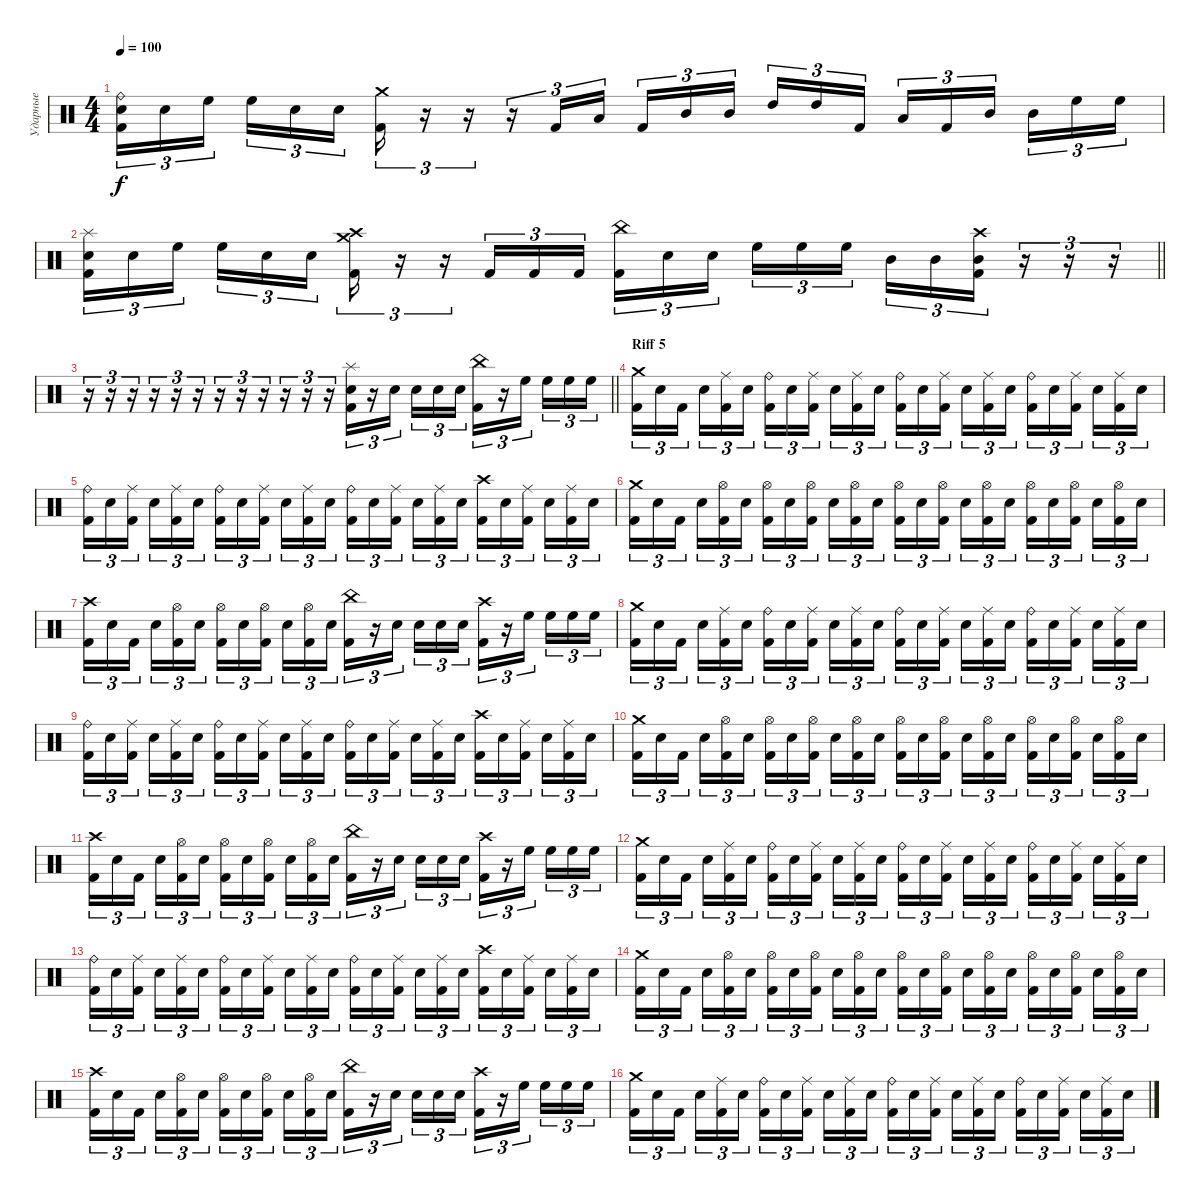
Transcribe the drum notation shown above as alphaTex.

\track ("Ударные" "Ударные") {instrument percussion}
\staff {score}
\articulation defaults
\ts (4 4)
\tempo 100
\clef neutral
\ks c
("Ride (bell)" "Electric Snare (hit)" "Kick (hit) 2").16{tu (3 2) dy f} "Electric Snare (hit)".16{tu (3 2)} "High Floor Tom (hit)".16{tu (3 2) beam splitsecondary} "High Floor Tom (hit)".16{tu (3 2)} "Electric Snare (hit)".16{tu (3 2)} "Electric Snare (hit)".16{tu (3 2)} ("Crash medium (hit)" "Kick (hit) 2").16{tu (3 2)} r.16{tu (3 2)} r.16{tu (3 2)} r.16{tu (3 2)} "Kick (hit) 2".16{tu (3 2)} "Low Tom (hit)".16{tu (3 2)} "Kick (hit) 2".16{tu (3 2)} "Mid Tom (hit)".16{tu (3 2)} "Mid Tom (hit)".16{tu (3 2) beam splitsecondary} "High Tom (hit)".16{tu (3 2)} "High Tom (hit)".16{tu (3 2)} "Kick (hit) 2".16{tu (3 2)} "Low Tom (hit)".16{tu (3 2)} "Kick (hit) 2".16{tu (3 2)} "Mid Tom (hit)".16{tu (3 2) beam splitsecondary} "Mid Tom (hit)".16{tu (3 2)} "High Floor Tom (hit)".16{tu (3 2)} "High Floor Tom (hit)".16{tu (3 2)} |
\barLineRight lightlight
("Splash (hit)" "Electric Snare (hit)" "Kick (hit) 2").16{tu (3 2)} "Electric Snare (hit)".16{tu (3 2)} "High Floor Tom (hit)".16{tu (3 2) beam splitsecondary} "High Floor Tom (hit)".16{tu (3 2)} "Electric Snare (hit)".16{tu (3 2)} "Electric Snare (hit)".16{tu (3 2)} ("Crash medium (hit)" "Crash high (hit)" "Kick (hit) 2").16{tu (3 2)} r.16{tu (3 2)} r.16{tu (3 2)} "Kick (hit) 2".16{tu (3 2)} "Kick (hit) 2".16{tu (3 2)} "Kick (hit) 2".16{tu (3 2)} ("China (hit)" "Kick (hit) 2").16{tu (3 2)} "Electric Snare (hit)".16{tu (3 2)} "Electric Snare (hit)".16{tu (3 2) beam splitsecondary} "High Floor Tom (hit)".16{tu (3 2)} "High Floor Tom (hit)".16{tu (3 2)} "High Floor Tom (hit)".16{tu (3 2)} "Mid Tom (hit)".16{tu (3 2)} "Mid Tom (hit)".16{tu (3 2)} ("Crash high (hit)" "Mid Tom (hit)" "Kick (hit) 2").16{tu (3 2)} r.16{tu (3 2)} r.16{tu (3 2)} r.16{tu (3 2)} |
\barLineRight lightlight
r.16{tu (3 2)} r.16{tu (3 2)} r.16{tu (3 2)} r.16{tu (3 2)} r.16{tu (3 2)} r.16{tu (3 2)} r.16{tu (3 2)} r.16{tu (3 2)} r.16{tu (3 2)} r.16{tu (3 2)} r.16{tu (3 2)} r.16{tu (3 2)} ("Splash (hit)" "Electric Snare (hit)" "Kick (hit) 2").16{tu (3 2)} r.16{tu (3 2)} "Electric Snare (hit)".16{tu (3 2) beam splitsecondary} "Electric Snare (hit)".16{tu (3 2)} "Electric Snare (hit)".16{tu (3 2)} "Electric Snare (hit)".16{tu (3 2)} ("China (hit)" "Kick (hit) 2").16{tu (3 2)} r.16{tu (3 2)} "High Floor Tom (hit)".16{tu (3 2) beam splitsecondary} "High Floor Tom (hit)".16{tu (3 2)} "High Floor Tom (hit)".16{tu (3 2)} "High Floor Tom (hit)".16{tu (3 2)} |
\section ("" "Riff 5")
("Crash medium (hit)" "Kick (hit) 2").16{tu (3 2)} "Electric Snare (hit)".16{tu (3 2)} "Kick (hit) 2".16{tu (3 2) beam splitsecondary} "Electric Snare (hit)".16{tu (3 2)} ("Ride (middle)" "Kick (hit) 2").16{tu (3 2)} "Electric Snare (hit)".16{tu (3 2)} ("Ride (bell)" "Kick (hit) 2").16{tu (3 2)} "Electric Snare (hit)".16{tu (3 2)} ("Ride (middle)" "Kick (hit) 2").16{tu (3 2) beam splitsecondary} "Electric Snare (hit)".16{tu (3 2)} ("Ride (middle)" "Kick (hit) 2").16{tu (3 2)} "Electric Snare (hit)".16{tu (3 2)} ("Ride (bell)" "Kick (hit) 2").16{tu (3 2)} "Electric Snare (hit)".16{tu (3 2)} ("Ride (middle)" "Kick (hit) 2").16{tu (3 2) beam splitsecondary} "Electric Snare (hit)".16{tu (3 2)} ("Ride (middle)" "Kick (hit) 2").16{tu (3 2)} "Electric Snare (hit)".16{tu (3 2)} ("Ride (bell)" "Kick (hit) 2").16{tu (3 2)} "Electric Snare (hit)".16{tu (3 2)} ("Ride (middle)" "Kick (hit) 2").16{tu (3 2) beam splitsecondary} "Electric Snare (hit)".16{tu (3 2)} ("Ride (middle)" "Kick (hit) 2").16{tu (3 2)} "Electric Snare (hit)".16{tu (3 2)} |
("Ride (bell)" "Kick (hit) 2").16{tu (3 2)} "Electric Snare (hit)".16{tu (3 2)} ("Ride (middle)" "Kick (hit) 2").16{tu (3 2) beam splitsecondary} "Electric Snare (hit)".16{tu (3 2)} ("Ride (middle)" "Kick (hit) 2").16{tu (3 2)} "Electric Snare (hit)".16{tu (3 2)} ("Ride (bell)" "Kick (hit) 2").16{tu (3 2)} "Electric Snare (hit)".16{tu (3 2)} ("Ride (middle)" "Kick (hit) 2").16{tu (3 2) beam splitsecondary} "Electric Snare (hit)".16{tu (3 2)} ("Ride (middle)" "Kick (hit) 2").16{tu (3 2)} "Electric Snare (hit)".16{tu (3 2)} ("Ride (bell)" "Kick (hit) 2").16{tu (3 2)} "Electric Snare (hit)".16{tu (3 2)} ("Ride (middle)" "Kick (hit) 2").16{tu (3 2) beam splitsecondary} "Electric Snare (hit)".16{tu (3 2)} ("Ride (middle)" "Kick (hit) 2").16{tu (3 2)} "Electric Snare (hit)".16{tu (3 2)} ("Crash high (hit)" "Kick (hit) 2").16{tu (3 2)} "Electric Snare (hit)".16{tu (3 2)} ("Ride (middle)" "Kick (hit) 2").16{tu (3 2) beam splitsecondary} "Electric Snare (hit)".16{tu (3 2)} ("Ride (middle)" "Kick (hit) 2").16{tu (3 2)} "Electric Snare (hit)".16{tu (3 2)} |
("Crash medium (hit)" "Kick (hit) 2").16{tu (3 2)} "Electric Snare (hit)".16{tu (3 2)} "Kick (hit) 2".16{tu (3 2) beam splitsecondary} "Electric Snare (hit)".16{tu (3 2)} ("Hi-Hat (open)" "Kick (hit) 2").16{tu (3 2)} "Electric Snare (hit)".16{tu (3 2)} ("Hi-Hat (open)" "Kick (hit) 2").16{tu (3 2)} "Electric Snare (hit)".16{tu (3 2)} ("Hi-Hat (open)" "Kick (hit) 2").16{tu (3 2) beam splitsecondary} "Electric Snare (hit)".16{tu (3 2)} ("Hi-Hat (open)" "Kick (hit) 2").16{tu (3 2)} "Electric Snare (hit)".16{tu (3 2)} ("Hi-Hat (open)" "Kick (hit) 2").16{tu (3 2)} "Electric Snare (hit)".16{tu (3 2)} ("Hi-Hat (open)" "Kick (hit) 2").16{tu (3 2) beam splitsecondary} "Electric Snare (hit)".16{tu (3 2)} ("Hi-Hat (open)" "Kick (hit) 2").16{tu (3 2)} "Electric Snare (hit)".16{tu (3 2)} ("Hi-Hat (open)" "Kick (hit) 2").16{tu (3 2)} "Electric Snare (hit)".16{tu (3 2)} ("Hi-Hat (open)" "Kick (hit) 2").16{tu (3 2) beam splitsecondary} "Electric Snare (hit)".16{tu (3 2)} ("Hi-Hat (open)" "Kick (hit) 2").16{tu (3 2)} "Electric Snare (hit)".16{tu (3 2)} |
("Crash high (hit)" "Kick (hit) 2").16{tu (3 2)} "Electric Snare (hit)".16{tu (3 2)} "Kick (hit) 2".16{tu (3 2) beam splitsecondary} "Electric Snare (hit)".16{tu (3 2)} ("Hi-Hat (open)" "Kick (hit) 2").16{tu (3 2)} "Electric Snare (hit)".16{tu (3 2)} ("Hi-Hat (open)" "Kick (hit) 2").16{tu (3 2)} "Electric Snare (hit)".16{tu (3 2)} ("Hi-Hat (open)" "Kick (hit) 2").16{tu (3 2) beam splitsecondary} "Electric Snare (hit)".16{tu (3 2)} ("Hi-Hat (open)" "Kick (hit) 2").16{tu (3 2)} "Electric Snare (hit)".16{tu (3 2)} ("China (hit)" "Kick (hit) 2").16{tu (3 2)} r.16{tu (3 2)} "Electric Snare (hit)".16{tu (3 2) beam splitsecondary} "Electric Snare (hit)".16{tu (3 2)} "Electric Snare (hit)".16{tu (3 2)} "Electric Snare (hit)".16{tu (3 2)} ("Crash high (hit)" "Kick (hit) 2").16{tu (3 2)} r.16{tu (3 2)} "High Floor Tom (hit)".16{tu (3 2) beam splitsecondary} "High Floor Tom (hit)".16{tu (3 2)} "High Floor Tom (hit)".16{tu (3 2)} "High Floor Tom (hit)".16{tu (3 2)} |
("Crash medium (hit)" "Kick (hit) 2").16{tu (3 2)} "Electric Snare (hit)".16{tu (3 2)} "Kick (hit) 2".16{tu (3 2) beam splitsecondary} "Electric Snare (hit)".16{tu (3 2)} ("Ride (middle)" "Kick (hit) 2").16{tu (3 2)} "Electric Snare (hit)".16{tu (3 2)} ("Ride (bell)" "Kick (hit) 2").16{tu (3 2)} "Electric Snare (hit)".16{tu (3 2)} ("Ride (middle)" "Kick (hit) 2").16{tu (3 2) beam splitsecondary} "Electric Snare (hit)".16{tu (3 2)} ("Ride (middle)" "Kick (hit) 2").16{tu (3 2)} "Electric Snare (hit)".16{tu (3 2)} ("Ride (bell)" "Kick (hit) 2").16{tu (3 2)} "Electric Snare (hit)".16{tu (3 2)} ("Ride (middle)" "Kick (hit) 2").16{tu (3 2) beam splitsecondary} "Electric Snare (hit)".16{tu (3 2)} ("Ride (middle)" "Kick (hit) 2").16{tu (3 2)} "Electric Snare (hit)".16{tu (3 2)} ("Ride (bell)" "Kick (hit) 2").16{tu (3 2)} "Electric Snare (hit)".16{tu (3 2)} ("Ride (middle)" "Kick (hit) 2").16{tu (3 2) beam splitsecondary} "Electric Snare (hit)".16{tu (3 2)} ("Ride (middle)" "Kick (hit) 2").16{tu (3 2)} "Electric Snare (hit)".16{tu (3 2)} |
("Ride (bell)" "Kick (hit) 2").16{tu (3 2)} "Electric Snare (hit)".16{tu (3 2)} ("Ride (middle)" "Kick (hit) 2").16{tu (3 2) beam splitsecondary} "Electric Snare (hit)".16{tu (3 2)} ("Ride (middle)" "Kick (hit) 2").16{tu (3 2)} "Electric Snare (hit)".16{tu (3 2)} ("Ride (bell)" "Kick (hit) 2").16{tu (3 2)} "Electric Snare (hit)".16{tu (3 2)} ("Ride (middle)" "Kick (hit) 2").16{tu (3 2) beam splitsecondary} "Electric Snare (hit)".16{tu (3 2)} ("Ride (middle)" "Kick (hit) 2").16{tu (3 2)} "Electric Snare (hit)".16{tu (3 2)} ("Ride (bell)" "Kick (hit) 2").16{tu (3 2)} "Electric Snare (hit)".16{tu (3 2)} ("Ride (middle)" "Kick (hit) 2").16{tu (3 2) beam splitsecondary} "Electric Snare (hit)".16{tu (3 2)} ("Ride (middle)" "Kick (hit) 2").16{tu (3 2)} "Electric Snare (hit)".16{tu (3 2)} ("Crash high (hit)" "Kick (hit) 2").16{tu (3 2)} "Electric Snare (hit)".16{tu (3 2)} ("Ride (middle)" "Kick (hit) 2").16{tu (3 2) beam splitsecondary} "Electric Snare (hit)".16{tu (3 2)} ("Ride (middle)" "Kick (hit) 2").16{tu (3 2)} "Electric Snare (hit)".16{tu (3 2)} |
("Crash medium (hit)" "Kick (hit) 2").16{tu (3 2)} "Electric Snare (hit)".16{tu (3 2)} "Kick (hit) 2".16{tu (3 2) beam splitsecondary} "Electric Snare (hit)".16{tu (3 2)} ("Hi-Hat (open)" "Kick (hit) 2").16{tu (3 2)} "Electric Snare (hit)".16{tu (3 2)} ("Hi-Hat (open)" "Kick (hit) 2").16{tu (3 2)} "Electric Snare (hit)".16{tu (3 2)} ("Hi-Hat (open)" "Kick (hit) 2").16{tu (3 2) beam splitsecondary} "Electric Snare (hit)".16{tu (3 2)} ("Hi-Hat (open)" "Kick (hit) 2").16{tu (3 2)} "Electric Snare (hit)".16{tu (3 2)} ("Hi-Hat (open)" "Kick (hit) 2").16{tu (3 2)} "Electric Snare (hit)".16{tu (3 2)} ("Hi-Hat (open)" "Kick (hit) 2").16{tu (3 2) beam splitsecondary} "Electric Snare (hit)".16{tu (3 2)} ("Hi-Hat (open)" "Kick (hit) 2").16{tu (3 2)} "Electric Snare (hit)".16{tu (3 2)} ("Hi-Hat (open)" "Kick (hit) 2").16{tu (3 2)} "Electric Snare (hit)".16{tu (3 2)} ("Hi-Hat (open)" "Kick (hit) 2").16{tu (3 2) beam splitsecondary} "Electric Snare (hit)".16{tu (3 2)} ("Hi-Hat (open)" "Kick (hit) 2").16{tu (3 2)} "Electric Snare (hit)".16{tu (3 2)} |
("Crash high (hit)" "Kick (hit) 2").16{tu (3 2)} "Electric Snare (hit)".16{tu (3 2)} "Kick (hit) 2".16{tu (3 2) beam splitsecondary} "Electric Snare (hit)".16{tu (3 2)} ("Hi-Hat (open)" "Kick (hit) 2").16{tu (3 2)} "Electric Snare (hit)".16{tu (3 2)} ("Hi-Hat (open)" "Kick (hit) 2").16{tu (3 2)} "Electric Snare (hit)".16{tu (3 2)} ("Hi-Hat (open)" "Kick (hit) 2").16{tu (3 2) beam splitsecondary} "Electric Snare (hit)".16{tu (3 2)} ("Hi-Hat (open)" "Kick (hit) 2").16{tu (3 2)} "Electric Snare (hit)".16{tu (3 2)} ("China (hit)" "Kick (hit) 2").16{tu (3 2)} r.16{tu (3 2)} "Electric Snare (hit)".16{tu (3 2) beam splitsecondary} "Electric Snare (hit)".16{tu (3 2)} "Electric Snare (hit)".16{tu (3 2)} "Electric Snare (hit)".16{tu (3 2)} ("Crash high (hit)" "Kick (hit) 2").16{tu (3 2)} r.16{tu (3 2)} "High Floor Tom (hit)".16{tu (3 2) beam splitsecondary} "High Floor Tom (hit)".16{tu (3 2)} "High Floor Tom (hit)".16{tu (3 2)} "High Floor Tom (hit)".16{tu (3 2)} |
("Crash medium (hit)" "Kick (hit) 2").16{tu (3 2)} "Electric Snare (hit)".16{tu (3 2)} "Kick (hit) 2".16{tu (3 2) beam splitsecondary} "Electric Snare (hit)".16{tu (3 2)} ("Ride (middle)" "Kick (hit) 2").16{tu (3 2)} "Electric Snare (hit)".16{tu (3 2)} ("Ride (bell)" "Kick (hit) 2").16{tu (3 2)} "Electric Snare (hit)".16{tu (3 2)} ("Ride (middle)" "Kick (hit) 2").16{tu (3 2) beam splitsecondary} "Electric Snare (hit)".16{tu (3 2)} ("Ride (middle)" "Kick (hit) 2").16{tu (3 2)} "Electric Snare (hit)".16{tu (3 2)} ("Ride (bell)" "Kick (hit) 2").16{tu (3 2)} "Electric Snare (hit)".16{tu (3 2)} ("Ride (middle)" "Kick (hit) 2").16{tu (3 2) beam splitsecondary} "Electric Snare (hit)".16{tu (3 2)} ("Ride (middle)" "Kick (hit) 2").16{tu (3 2)} "Electric Snare (hit)".16{tu (3 2)} ("Ride (bell)" "Kick (hit) 2").16{tu (3 2)} "Electric Snare (hit)".16{tu (3 2)} ("Ride (middle)" "Kick (hit) 2").16{tu (3 2) beam splitsecondary} "Electric Snare (hit)".16{tu (3 2)} ("Ride (middle)" "Kick (hit) 2").16{tu (3 2)} "Electric Snare (hit)".16{tu (3 2)} |
("Ride (bell)" "Kick (hit) 2").16{tu (3 2)} "Electric Snare (hit)".16{tu (3 2)} ("Ride (middle)" "Kick (hit) 2").16{tu (3 2) beam splitsecondary} "Electric Snare (hit)".16{tu (3 2)} ("Ride (middle)" "Kick (hit) 2").16{tu (3 2)} "Electric Snare (hit)".16{tu (3 2)} ("Ride (bell)" "Kick (hit) 2").16{tu (3 2)} "Electric Snare (hit)".16{tu (3 2)} ("Ride (middle)" "Kick (hit) 2").16{tu (3 2) beam splitsecondary} "Electric Snare (hit)".16{tu (3 2)} ("Ride (middle)" "Kick (hit) 2").16{tu (3 2)} "Electric Snare (hit)".16{tu (3 2)} ("Ride (bell)" "Kick (hit) 2").16{tu (3 2)} "Electric Snare (hit)".16{tu (3 2)} ("Ride (middle)" "Kick (hit) 2").16{tu (3 2) beam splitsecondary} "Electric Snare (hit)".16{tu (3 2)} ("Ride (middle)" "Kick (hit) 2").16{tu (3 2)} "Electric Snare (hit)".16{tu (3 2)} ("Crash high (hit)" "Kick (hit) 2").16{tu (3 2)} "Electric Snare (hit)".16{tu (3 2)} ("Ride (middle)" "Kick (hit) 2").16{tu (3 2) beam splitsecondary} "Electric Snare (hit)".16{tu (3 2)} ("Ride (middle)" "Kick (hit) 2").16{tu (3 2)} "Electric Snare (hit)".16{tu (3 2)} |
("Crash medium (hit)" "Kick (hit) 2").16{tu (3 2)} "Electric Snare (hit)".16{tu (3 2)} "Kick (hit) 2".16{tu (3 2) beam splitsecondary} "Electric Snare (hit)".16{tu (3 2)} ("Hi-Hat (open)" "Kick (hit) 2").16{tu (3 2)} "Electric Snare (hit)".16{tu (3 2)} ("Hi-Hat (open)" "Kick (hit) 2").16{tu (3 2)} "Electric Snare (hit)".16{tu (3 2)} ("Hi-Hat (open)" "Kick (hit) 2").16{tu (3 2) beam splitsecondary} "Electric Snare (hit)".16{tu (3 2)} ("Hi-Hat (open)" "Kick (hit) 2").16{tu (3 2)} "Electric Snare (hit)".16{tu (3 2)} ("Hi-Hat (open)" "Kick (hit) 2").16{tu (3 2)} "Electric Snare (hit)".16{tu (3 2)} ("Hi-Hat (open)" "Kick (hit) 2").16{tu (3 2) beam splitsecondary} "Electric Snare (hit)".16{tu (3 2)} ("Hi-Hat (open)" "Kick (hit) 2").16{tu (3 2)} "Electric Snare (hit)".16{tu (3 2)} ("Hi-Hat (open)" "Kick (hit) 2").16{tu (3 2)} "Electric Snare (hit)".16{tu (3 2)} ("Hi-Hat (open)" "Kick (hit) 2").16{tu (3 2) beam splitsecondary} "Electric Snare (hit)".16{tu (3 2)} ("Hi-Hat (open)" "Kick (hit) 2").16{tu (3 2)} "Electric Snare (hit)".16{tu (3 2)} |
("Crash high (hit)" "Kick (hit) 2").16{tu (3 2)} "Electric Snare (hit)".16{tu (3 2)} "Kick (hit) 2".16{tu (3 2) beam splitsecondary} "Electric Snare (hit)".16{tu (3 2)} ("Hi-Hat (open)" "Kick (hit) 2").16{tu (3 2)} "Electric Snare (hit)".16{tu (3 2)} ("Hi-Hat (open)" "Kick (hit) 2").16{tu (3 2)} "Electric Snare (hit)".16{tu (3 2)} ("Hi-Hat (open)" "Kick (hit) 2").16{tu (3 2) beam splitsecondary} "Electric Snare (hit)".16{tu (3 2)} ("Hi-Hat (open)" "Kick (hit) 2").16{tu (3 2)} "Electric Snare (hit)".16{tu (3 2)} ("China (hit)" "Kick (hit) 2").16{tu (3 2)} r.16{tu (3 2)} "Electric Snare (hit)".16{tu (3 2) beam splitsecondary} "Electric Snare (hit)".16{tu (3 2)} "Electric Snare (hit)".16{tu (3 2)} "Electric Snare (hit)".16{tu (3 2)} ("Crash high (hit)" "Kick (hit) 2").16{tu (3 2)} r.16{tu (3 2)} "High Floor Tom (hit)".16{tu (3 2) beam splitsecondary} "High Floor Tom (hit)".16{tu (3 2)} "High Floor Tom (hit)".16{tu (3 2)} "High Floor Tom (hit)".16{tu (3 2)} |
("Crash medium (hit)" "Kick (hit) 2").16{tu (3 2)} "Electric Snare (hit)".16{tu (3 2)} "Kick (hit) 2".16{tu (3 2) beam splitsecondary} "Electric Snare (hit)".16{tu (3 2)} ("Ride (middle)" "Kick (hit) 2").16{tu (3 2)} "Electric Snare (hit)".16{tu (3 2)} ("Ride (bell)" "Kick (hit) 2").16{tu (3 2)} "Electric Snare (hit)".16{tu (3 2)} ("Ride (middle)" "Kick (hit) 2").16{tu (3 2) beam splitsecondary} "Electric Snare (hit)".16{tu (3 2)} ("Ride (middle)" "Kick (hit) 2").16{tu (3 2)} "Electric Snare (hit)".16{tu (3 2)} ("Ride (bell)" "Kick (hit) 2").16{tu (3 2)} "Electric Snare (hit)".16{tu (3 2)} ("Ride (middle)" "Kick (hit) 2").16{tu (3 2) beam splitsecondary} "Electric Snare (hit)".16{tu (3 2)} ("Ride (middle)" "Kick (hit) 2").16{tu (3 2)} "Electric Snare (hit)".16{tu (3 2)} ("Ride (bell)" "Kick (hit) 2").16{tu (3 2)} "Electric Snare (hit)".16{tu (3 2)} ("Ride (middle)" "Kick (hit) 2").16{tu (3 2) beam splitsecondary} "Electric Snare (hit)".16{tu (3 2)} ("Ride (middle)" "Kick (hit) 2").16{tu (3 2)} "Electric Snare (hit)".16{tu (3 2)}
